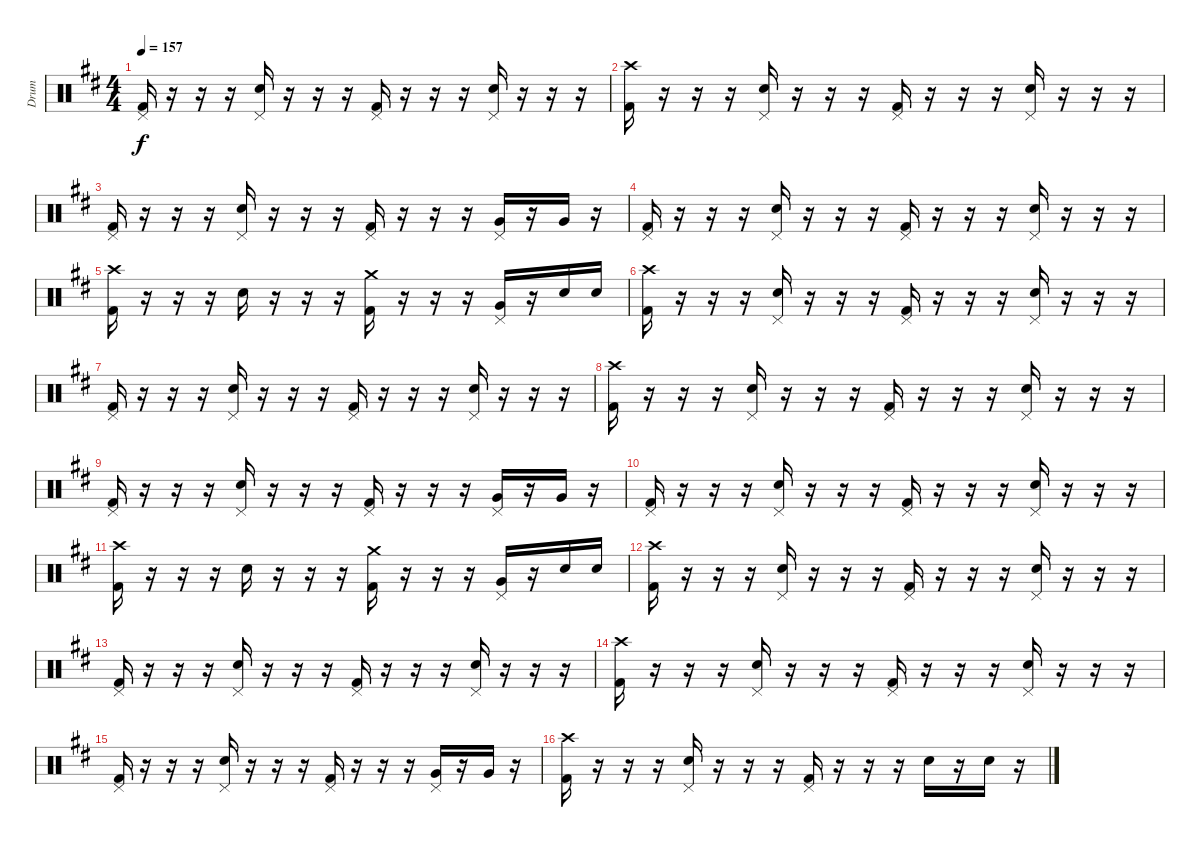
\track ("Drum" "Drum") {instrument percussion}
\staff {score}
\articulation defaults
\ts (4 4)
\tempo 157
\clef neutral
\ks d
("Kick (hit) 2" "Pedal Hi-Hat (hit)").16{dy f} r.16 r.16 r.16 ("Electric Snare (hit)" "Pedal Hi-Hat (hit)").16 r.16 r.16 r.16 ("Kick (hit) 2" "Pedal Hi-Hat (hit)").16 r.16 r.16 r.16 ("Electric Snare (hit)" "Pedal Hi-Hat (hit)").16 r.16 r.16 r.16 |
("Kick (hit) 2" "Crash high (hit)").16 r.16 r.16 r.16 ("Electric Snare (hit)" "Pedal Hi-Hat (hit)").16 r.16 r.16 r.16 ("Kick (hit) 2" "Pedal Hi-Hat (hit)").16 r.16 r.16 r.16 ("Electric Snare (hit)" "Pedal Hi-Hat (hit)").16 r.16 r.16 r.16 |
("Kick (hit) 2" "Pedal Hi-Hat (hit)").16 r.16 r.16 r.16 ("Electric Snare (hit)" "Pedal Hi-Hat (hit)").16 r.16 r.16 r.16 ("Kick (hit) 2" "Pedal Hi-Hat (hit)").16 r.16 r.16 r.16 ("Very Low Tom (hit)" "Pedal Hi-Hat (hit)").16 r.16 "Very Low Tom (hit)".16 r.16 |
("Kick (hit) 2" "Pedal Hi-Hat (hit)").16 r.16 r.16 r.16 ("Electric Snare (hit)" "Pedal Hi-Hat (hit)").16 r.16 r.16 r.16 ("Kick (hit) 2" "Pedal Hi-Hat (hit)").16 r.16 r.16 r.16 ("Electric Snare (hit)" "Pedal Hi-Hat (hit)").16 r.16 r.16 r.16 |
("Kick (hit) 2" "Crash high (hit)").16 r.16 r.16 r.16 "Electric Snare (hit)".16 r.16 r.16 r.16 ("Kick (hit) 2" "Crash medium (hit)").16 r.16 r.16 r.16 ("Very Low Tom (hit)" "Pedal Hi-Hat (hit)").16 r.16 "Electric Snare (hit)".16 "Electric Snare (hit)".16 |
("Kick (hit) 2" "Crash high (hit)").16 r.16 r.16 r.16 ("Electric Snare (hit)" "Pedal Hi-Hat (hit)").16 r.16 r.16 r.16 ("Kick (hit) 2" "Pedal Hi-Hat (hit)").16 r.16 r.16 r.16 ("Electric Snare (hit)" "Pedal Hi-Hat (hit)").16 r.16 r.16 r.16 |
("Kick (hit) 2" "Pedal Hi-Hat (hit)").16 r.16 r.16 r.16 ("Electric Snare (hit)" "Pedal Hi-Hat (hit)").16 r.16 r.16 r.16 ("Kick (hit) 2" "Pedal Hi-Hat (hit)").16 r.16 r.16 r.16 ("Electric Snare (hit)" "Pedal Hi-Hat (hit)").16 r.16 r.16 r.16 |
("Kick (hit) 2" "Crash high (hit)").16 r.16 r.16 r.16 ("Electric Snare (hit)" "Pedal Hi-Hat (hit)").16 r.16 r.16 r.16 ("Kick (hit) 2" "Pedal Hi-Hat (hit)").16 r.16 r.16 r.16 ("Electric Snare (hit)" "Pedal Hi-Hat (hit)").16 r.16 r.16 r.16 |
("Kick (hit) 2" "Pedal Hi-Hat (hit)").16 r.16 r.16 r.16 ("Electric Snare (hit)" "Pedal Hi-Hat (hit)").16 r.16 r.16 r.16 ("Kick (hit) 2" "Pedal Hi-Hat (hit)").16 r.16 r.16 r.16 ("Very Low Tom (hit)" "Pedal Hi-Hat (hit)").16 r.16 "Very Low Tom (hit)".16 r.16 |
("Kick (hit) 2" "Pedal Hi-Hat (hit)").16 r.16 r.16 r.16 ("Electric Snare (hit)" "Pedal Hi-Hat (hit)").16 r.16 r.16 r.16 ("Kick (hit) 2" "Pedal Hi-Hat (hit)").16 r.16 r.16 r.16 ("Electric Snare (hit)" "Pedal Hi-Hat (hit)").16 r.16 r.16 r.16 |
("Kick (hit) 2" "Crash high (hit)").16 r.16 r.16 r.16 "Electric Snare (hit)".16 r.16 r.16 r.16 ("Kick (hit) 2" "Crash medium (hit)").16 r.16 r.16 r.16 ("Very Low Tom (hit)" "Pedal Hi-Hat (hit)").16 r.16 "Electric Snare (hit)".16 "Electric Snare (hit)".16 |
("Kick (hit) 2" "Crash high (hit)").16 r.16 r.16 r.16 ("Electric Snare (hit)" "Pedal Hi-Hat (hit)").16 r.16 r.16 r.16 ("Kick (hit) 2" "Pedal Hi-Hat (hit)").16 r.16 r.16 r.16 ("Electric Snare (hit)" "Pedal Hi-Hat (hit)").16 r.16 r.16 r.16 |
("Kick (hit) 2" "Pedal Hi-Hat (hit)").16 r.16 r.16 r.16 ("Electric Snare (hit)" "Pedal Hi-Hat (hit)").16 r.16 r.16 r.16 ("Kick (hit) 2" "Pedal Hi-Hat (hit)").16 r.16 r.16 r.16 ("Electric Snare (hit)" "Pedal Hi-Hat (hit)").16 r.16 r.16 r.16 |
("Kick (hit) 2" "Crash high (hit)").16 r.16 r.16 r.16 ("Electric Snare (hit)" "Pedal Hi-Hat (hit)").16 r.16 r.16 r.16 ("Kick (hit) 2" "Pedal Hi-Hat (hit)").16 r.16 r.16 r.16 ("Electric Snare (hit)" "Pedal Hi-Hat (hit)").16 r.16 r.16 r.16 |
("Kick (hit) 2" "Pedal Hi-Hat (hit)").16 r.16 r.16 r.16 ("Electric Snare (hit)" "Pedal Hi-Hat (hit)").16 r.16 r.16 r.16 ("Kick (hit) 2" "Pedal Hi-Hat (hit)").16 r.16 r.16 r.16 ("Very Low Tom (hit)" "Pedal Hi-Hat (hit)").16 r.16 "Very Low Tom (hit)".16 r.16 |
("Kick (hit) 2" "Crash high (hit)").16 r.16 r.16 r.16 ("Electric Snare (hit)" "Pedal Hi-Hat (hit)").16 r.16 r.16 r.16 ("Kick (hit) 2" "Pedal Hi-Hat (hit)").16 r.16 r.16 r.16 "Electric Snare (hit)".16 r.16 "Electric Snare (hit)".16 r.16
